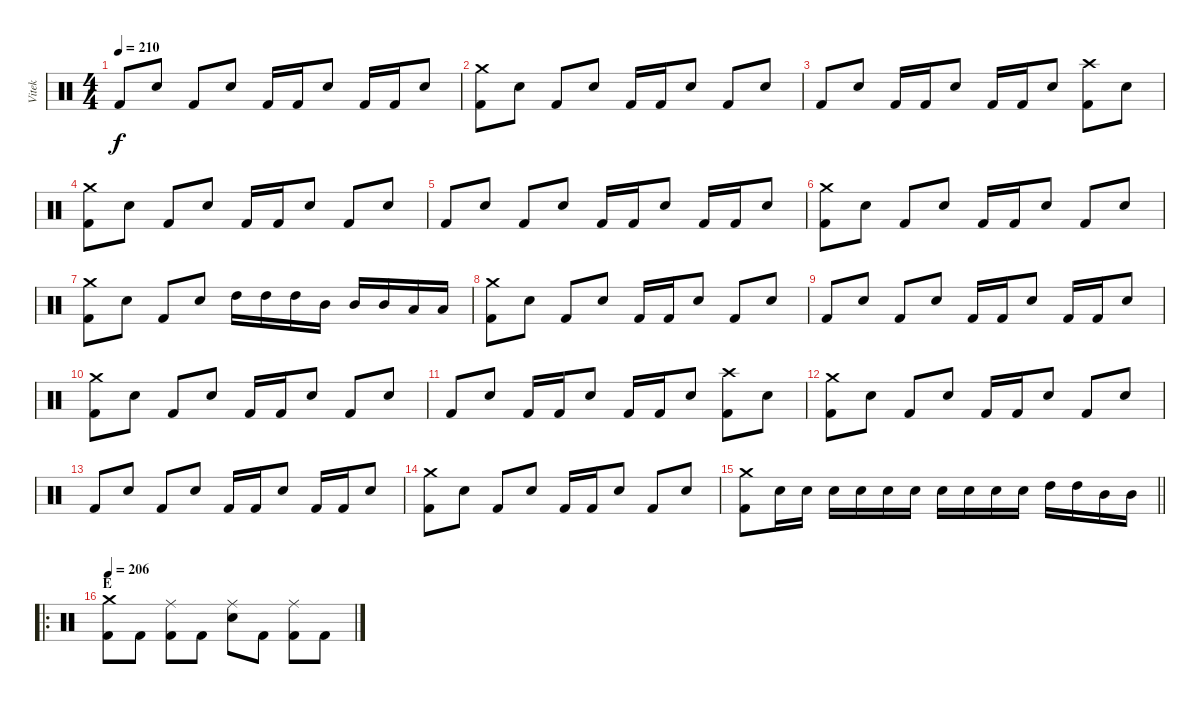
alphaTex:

\track ("Vitek" "Vitek") {instrument percussion}
\staff {score}
\articulation defaults
\ts (4 4)
\tempo 210
\clef neutral
\ks c "Kick (hit) 2".8{dy f} "Electric Snare (hit)".8 "Kick (hit) 2".8 "Electric Snare (hit)".8 "Kick (hit) 2".16 "Kick (hit) 2".16 "Electric Snare (hit)".8 "Kick (hit) 2".16 "Kick (hit) 2".16 "Electric Snare (hit)".8
|
("Crash medium (hit)" "Kick (hit) 2").8 "Electric Snare (hit)".8 "Kick (hit) 2".8 "Electric Snare (hit)".8 "Kick (hit) 2".16 "Kick (hit) 2".16 "Electric Snare (hit)".8 "Kick (hit) 2".8 "Electric Snare (hit)".8 |
"Kick (hit) 2".8 "Electric Snare (hit)".8 "Kick (hit) 2".16 "Kick (hit) 2".16 "Electric Snare (hit)".8 "Kick (hit) 2".16 "Kick (hit) 2".16 "Electric Snare (hit)".8 ("Crash high (hit)" "Kick (hit) 2").8 "Electric Snare (hit)".8 |
("Crash medium (hit)" "Kick (hit) 2").8 "Electric Snare (hit)".8 "Kick (hit) 2".8 "Electric Snare (hit)".8 "Kick (hit) 2".16 "Kick (hit) 2".16 "Electric Snare (hit)".8 "Kick (hit) 2".8 "Electric Snare (hit)".8 |
"Kick (hit) 2".8 "Electric Snare (hit)".8 "Kick (hit) 2".8 "Electric Snare (hit)".8 "Kick (hit) 2".16 "Kick (hit) 2".16 "Electric Snare (hit)".8 "Kick (hit) 2".16 "Kick (hit) 2".16 "Electric Snare (hit)".8 |
("Crash medium (hit)" "Kick (hit) 2").8 "Electric Snare (hit)".8 "Kick (hit) 2".8 "Electric Snare (hit)".8 "Kick (hit) 2".16 "Kick (hit) 2".16 "Electric Snare (hit)".8 "Kick (hit) 2".8 "Electric Snare (hit)".8 |
("Crash medium (hit)" "Kick (hit) 2").8 "Electric Snare (hit)".8 "Kick (hit) 2".8 "Electric Snare (hit)".8 "High Tom (hit)".16 "High Tom (hit)".16 "High Tom (hit)".16 "Mid Tom (hit)".16 "Mid Tom (hit)".16 "Mid Tom (hit)".16 "Low Tom (hit)".16 "Low Tom (hit)".16 |
("Crash medium (hit)" "Kick (hit) 2").8 "Electric Snare (hit)".8 "Kick (hit) 2".8 "Electric Snare (hit)".8 "Kick (hit) 2".16 "Kick (hit) 2".16 "Electric Snare (hit)".8 "Kick (hit) 2".8 "Electric Snare (hit)".8 |
"Kick (hit) 2".8 "Electric Snare (hit)".8 "Kick (hit) 2".8 "Electric Snare (hit)".8 "Kick (hit) 2".16 "Kick (hit) 2".16 "Electric Snare (hit)".8 "Kick (hit) 2".16 "Kick (hit) 2".16 "Electric Snare (hit)".8 |
("Crash medium (hit)" "Kick (hit) 2").8 "Electric Snare (hit)".8 "Kick (hit) 2".8 "Electric Snare (hit)".8 "Kick (hit) 2".16 "Kick (hit) 2".16 "Electric Snare (hit)".8 "Kick (hit) 2".8 "Electric Snare (hit)".8 |
"Kick (hit) 2".8 "Electric Snare (hit)".8 "Kick (hit) 2".16 "Kick (hit) 2".16 "Electric Snare (hit)".8 "Kick (hit) 2".16 "Kick (hit) 2".16 "Electric Snare (hit)".8 ("Crash high (hit)" "Kick (hit) 2").8 "Electric Snare (hit)".8 |
("Crash medium (hit)" "Kick (hit) 2").8 "Electric Snare (hit)".8 "Kick (hit) 2".8 "Electric Snare (hit)".8 "Kick (hit) 2".16 "Kick (hit) 2".16 "Electric Snare (hit)".8 "Kick (hit) 2".8 "Electric Snare (hit)".8 |
"Kick (hit) 2".8 "Electric Snare (hit)".8 "Kick (hit) 2".8 "Electric Snare (hit)".8 "Kick (hit) 2".16 "Kick (hit) 2".16 "Electric Snare (hit)".8 "Kick (hit) 2".16 "Kick (hit) 2".16 "Electric Snare (hit)".8 |
("Crash medium (hit)" "Kick (hit) 2").8 "Electric Snare (hit)".8 "Kick (hit) 2".8 "Electric Snare (hit)".8 "Kick (hit) 2".16 "Kick (hit) 2".16 "Electric Snare (hit)".8 "Kick (hit) 2".8 "Electric Snare (hit)".8 |
\barLineRight lightlight
("Crash medium (hit)" "Kick (hit) 2").8 "Electric Snare (hit)".16 "Electric Snare (hit)".16 "Electric Snare (hit)".16 "Electric Snare (hit)".16 "Electric Snare (hit)".16 "Electric Snare (hit)".16 "Electric Snare (hit)".16 "Electric Snare (hit)".16 "Electric Snare (hit)".16 "Electric Snare (hit)".16 "High Tom (hit)".16 "High Tom (hit)".16 "Mid Tom (hit)".16 "Mid Tom (hit)".16 |
\ro
\section ("" "E")
\tempo 206
("Crash medium (hit)" "Kick (hit) 2").8 "Kick (hit) 2".8 ("Ride (middle)" "Kick (hit) 2").8 "Kick (hit) 2".8 ("Ride (middle)" "Electric Snare (hit)").8 "Kick (hit) 2".8 ("Ride (middle)" "Kick (hit) 2").8 "Kick (hit) 2".8
